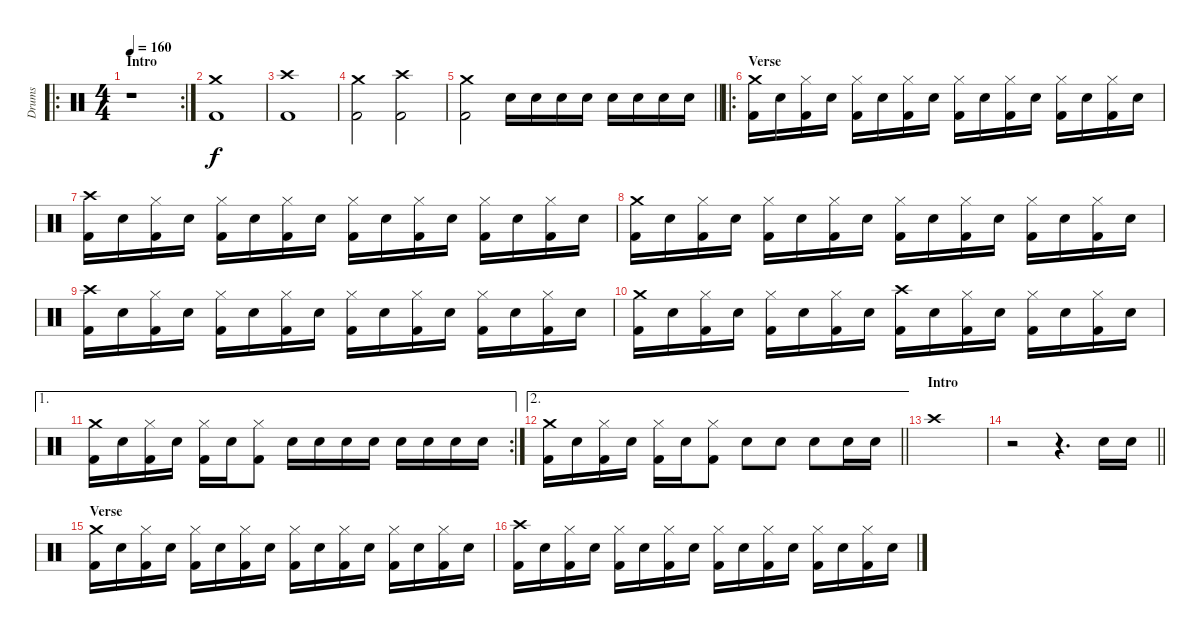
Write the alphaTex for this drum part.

\track ("Drums" "Drums") {instrument percussion}
\staff {score}
\articulation defaults
\ro
\rc 2
\ts (4 4)
\section ("" "Intro")
\tempo 160
\clef neutral
\ks c
r.1{dy f} |
("Crash medium (hit)" "Kick (hit) 2").1 |
("Crash high (hit)" "Kick (hit) 2").1 |
("Crash medium (hit)" "Kick (hit) 2").2 ("Crash high (hit)" "Kick (hit) 2").2 |
\barLineRight lightlight
("Crash medium (hit)" "Kick (hit) 2").2 "Electric Snare (hit)".16 "Electric Snare (hit)".16 "Electric Snare (hit)".16 "Electric Snare (hit)".16 "Electric Snare (hit)".16 "Electric Snare (hit)".16 "Electric Snare (hit)".16 "Electric Snare (hit)".16 |
\ro
\section ("" "Verse")
("Crash medium (hit)" "Kick (hit) 2").16 "Electric Snare (hit)".16 ("Hi-Hat (closed)" "Kick (hit) 2").16 "Electric Snare (hit)".16 ("Hi-Hat (closed)" "Kick (hit) 2").16 "Electric Snare (hit)".16 ("Hi-Hat (closed)" "Kick (hit) 2").16 "Electric Snare (hit)".16 ("Hi-Hat (closed)" "Kick (hit) 2").16 "Electric Snare (hit)".16 ("Hi-Hat (closed)" "Kick (hit) 2").16 "Electric Snare (hit)".16 ("Hi-Hat (closed)" "Kick (hit) 2").16 "Electric Snare (hit)".16 ("Hi-Hat (closed)" "Kick (hit) 2").16 "Electric Snare (hit)".16 |
("Crash high (hit)" "Kick (hit) 2").16 "Electric Snare (hit)".16 ("Hi-Hat (closed)" "Kick (hit) 2").16 "Electric Snare (hit)".16 ("Hi-Hat (closed)" "Kick (hit) 2").16 "Electric Snare (hit)".16 ("Hi-Hat (closed)" "Kick (hit) 2").16 "Electric Snare (hit)".16 ("Hi-Hat (closed)" "Kick (hit) 2").16 "Electric Snare (hit)".16 ("Hi-Hat (closed)" "Kick (hit) 2").16 "Electric Snare (hit)".16 ("Hi-Hat (closed)" "Kick (hit) 2").16 "Electric Snare (hit)".16 ("Hi-Hat (closed)" "Kick (hit) 2").16 "Electric Snare (hit)".16 |
("Crash medium (hit)" "Kick (hit) 2").16 "Electric Snare (hit)".16 ("Hi-Hat (closed)" "Kick (hit) 2").16 "Electric Snare (hit)".16 ("Hi-Hat (closed)" "Kick (hit) 2").16 "Electric Snare (hit)".16 ("Hi-Hat (closed)" "Kick (hit) 2").16 "Electric Snare (hit)".16 ("Hi-Hat (closed)" "Kick (hit) 2").16 "Electric Snare (hit)".16 ("Hi-Hat (closed)" "Kick (hit) 2").16 "Electric Snare (hit)".16 ("Hi-Hat (closed)" "Kick (hit) 2").16 "Electric Snare (hit)".16 ("Hi-Hat (closed)" "Kick (hit) 2").16 "Electric Snare (hit)".16 |
("Crash high (hit)" "Kick (hit) 2").16 "Electric Snare (hit)".16 ("Hi-Hat (closed)" "Kick (hit) 2").16 "Electric Snare (hit)".16 ("Hi-Hat (closed)" "Kick (hit) 2").16 "Electric Snare (hit)".16 ("Hi-Hat (closed)" "Kick (hit) 2").16 "Electric Snare (hit)".16 ("Hi-Hat (closed)" "Kick (hit) 2").16 "Electric Snare (hit)".16 ("Hi-Hat (closed)" "Kick (hit) 2").16 "Electric Snare (hit)".16 ("Hi-Hat (closed)" "Kick (hit) 2").16 "Electric Snare (hit)".16 ("Hi-Hat (closed)" "Kick (hit) 2").16 "Electric Snare (hit)".16 |
("Crash medium (hit)" "Kick (hit) 2").16 "Electric Snare (hit)".16 ("Hi-Hat (closed)" "Kick (hit) 2").16 "Electric Snare (hit)".16 ("Hi-Hat (closed)" "Kick (hit) 2").16 "Electric Snare (hit)".16 ("Hi-Hat (closed)" "Kick (hit) 2").16 "Electric Snare (hit)".16 ("Crash high (hit)" "Kick (hit) 2").16 "Electric Snare (hit)".16 ("Hi-Hat (closed)" "Kick (hit) 2").16 "Electric Snare (hit)".16 ("Hi-Hat (closed)" "Kick (hit) 2").16 "Electric Snare (hit)".16 ("Hi-Hat (closed)" "Kick (hit) 2").16 "Electric Snare (hit)".16 |
\ae 1
\rc 2
("Crash medium (hit)" "Kick (hit) 2").16 "Electric Snare (hit)".16 ("Hi-Hat (closed)" "Kick (hit) 2").16 "Electric Snare (hit)".16 ("Hi-Hat (closed)" "Kick (hit) 2").16 "Electric Snare (hit)".16 ("Hi-Hat (closed)" "Kick (hit) 2").8 "Electric Snare (hit)".16 "Electric Snare (hit)".16 "Electric Snare (hit)".16 "Electric Snare (hit)".16 "Electric Snare (hit)".16 "Electric Snare (hit)".16 "Electric Snare (hit)".16 "Electric Snare (hit)".16 |
\ae 2
\barLineRight lightlight
("Crash medium (hit)" "Kick (hit) 2").16 "Electric Snare (hit)".16 ("Hi-Hat (closed)" "Kick (hit) 2").16 "Electric Snare (hit)".16 ("Hi-Hat (closed)" "Kick (hit) 2").16 "Electric Snare (hit)".16 ("Hi-Hat (closed)" "Kick (hit) 2").8 "Electric Snare (hit)".8 "Electric Snare (hit)".8 "Electric Snare (hit)".8 "Electric Snare (hit)".16 "Electric Snare (hit)".16 |
\section ("" "Intro")
"Crash high (hit)".1 |
\barLineRight lightlight
r.2 r.4{d} "Electric Snare (hit)".16 "Electric Snare (hit)".16 |
\section ("" "Verse")
("Crash medium (hit)" "Kick (hit) 2").16 "Electric Snare (hit)".16 ("Hi-Hat (closed)" "Kick (hit) 2").16 "Electric Snare (hit)".16 ("Hi-Hat (closed)" "Kick (hit) 2").16 "Electric Snare (hit)".16 ("Hi-Hat (closed)" "Kick (hit) 2").16 "Electric Snare (hit)".16 ("Hi-Hat (closed)" "Kick (hit) 2").16 "Electric Snare (hit)".16 ("Hi-Hat (closed)" "Kick (hit) 2").16 "Electric Snare (hit)".16 ("Hi-Hat (closed)" "Kick (hit) 2").16 "Electric Snare (hit)".16 ("Hi-Hat (closed)" "Kick (hit) 2").16 "Electric Snare (hit)".16 |
("Crash high (hit)" "Kick (hit) 2").16 "Electric Snare (hit)".16 ("Hi-Hat (closed)" "Kick (hit) 2").16 "Electric Snare (hit)".16 ("Hi-Hat (closed)" "Kick (hit) 2").16 "Electric Snare (hit)".16 ("Hi-Hat (closed)" "Kick (hit) 2").16 "Electric Snare (hit)".16 ("Hi-Hat (closed)" "Kick (hit) 2").16 "Electric Snare (hit)".16 ("Hi-Hat (closed)" "Kick (hit) 2").16 "Electric Snare (hit)".16 ("Hi-Hat (closed)" "Kick (hit) 2").16 "Electric Snare (hit)".16 ("Hi-Hat (closed)" "Kick (hit) 2").16 "Electric Snare (hit)".16
